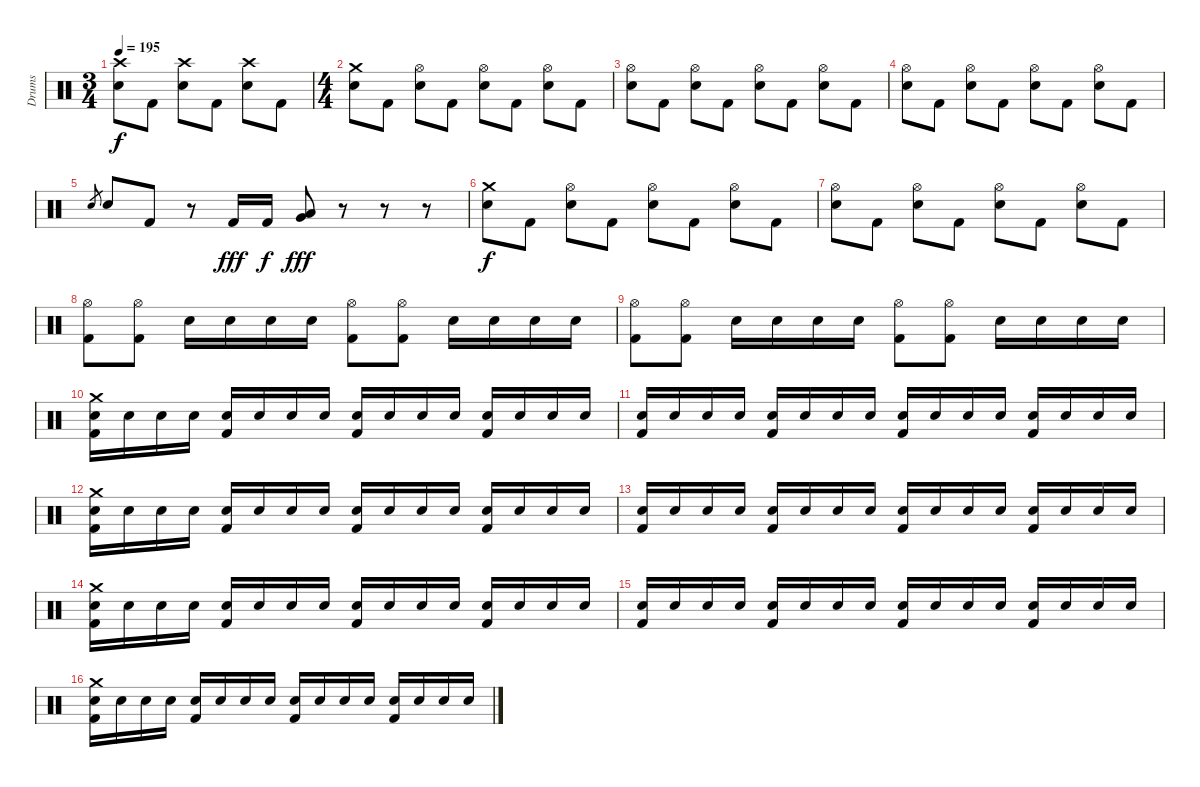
\track ("Drums" "Drums") {instrument percussion}
\staff {score}
\articulation defaults
\ts (3 4)
\tempo 195
\clef neutral
\ks c
("Crash high (hit)" "Electric Snare (hit)").8{dy f} "Kick (hit) 2".8 ("Crash high (hit)" "Electric Snare (hit)").8 "Kick (hit) 2".8 ("Crash high (hit)" "Electric Snare (hit)").8 "Kick (hit) 2".8 |
\ts (4 4)
("Crash medium (hit)" "Electric Snare (hit)").8 "Kick (hit) 2".8 ("Hi-Hat (open)" "Electric Snare (hit)").8 "Kick (hit) 2".8 ("Hi-Hat (open)" "Electric Snare (hit)").8 "Kick (hit) 2".8 ("Hi-Hat (open)" "Electric Snare (hit)").8 "Kick (hit) 2".8 |
("Hi-Hat (open)" "Electric Snare (hit)").8 "Kick (hit) 2".8 ("Hi-Hat (open)" "Electric Snare (hit)").8 "Kick (hit) 2".8 ("Hi-Hat (open)" "Electric Snare (hit)").8 "Kick (hit) 2".8 ("Hi-Hat (open)" "Electric Snare (hit)").8 "Kick (hit) 2".8 |
("Hi-Hat (open)" "Electric Snare (hit)").8 "Kick (hit) 2".8 ("Hi-Hat (open)" "Electric Snare (hit)").8 "Kick (hit) 2".8 ("Hi-Hat (open)" "Electric Snare (hit)").8 "Kick (hit) 2".8 ("Hi-Hat (open)" "Electric Snare (hit)").8 "Kick (hit) 2".8 |
"Electric Snare (hit)".8{gr} "Electric Snare (hit)".8 "Kick (hit) 2".8 r.8 "Kick (hit) 2".16{dy fff} "Kick (hit) 2".16{dy f} ("Low Floor Tom (hit)" "Very Low Tom (hit)").8{dy fff} r.8 r.8 r.8 |
("Crash medium (hit)" "Electric Snare (hit)").8{dy f} "Kick (hit) 2".8 ("Hi-Hat (open)" "Electric Snare (hit)").8 "Kick (hit) 2".8 ("Hi-Hat (open)" "Electric Snare (hit)").8 "Kick (hit) 2".8 ("Hi-Hat (open)" "Electric Snare (hit)").8 "Kick (hit) 2".8 |
("Hi-Hat (open)" "Electric Snare (hit)").8 "Kick (hit) 2".8 ("Hi-Hat (open)" "Electric Snare (hit)").8 "Kick (hit) 2".8 ("Hi-Hat (open)" "Electric Snare (hit)").8 "Kick (hit) 2".8 ("Hi-Hat (open)" "Electric Snare (hit)").8 "Kick (hit) 2".8 |
("Hi-Hat (open)" "Kick (hit) 2").8 ("Hi-Hat (open)" "Kick (hit) 2").8 "Electric Snare (hit)".16 "Electric Snare (hit)".16 "Electric Snare (hit)".16 "Electric Snare (hit)".16 ("Hi-Hat (open)" "Kick (hit) 2").8 ("Hi-Hat (open)" "Kick (hit) 2").8 "Electric Snare (hit)".16 "Electric Snare (hit)".16 "Electric Snare (hit)".16 "Electric Snare (hit)".16 |
("Hi-Hat (open)" "Kick (hit) 2").8 ("Hi-Hat (open)" "Kick (hit) 2").8 "Electric Snare (hit)".16 "Electric Snare (hit)".16 "Electric Snare (hit)".16 "Electric Snare (hit)".16 ("Hi-Hat (open)" "Kick (hit) 2").8 ("Hi-Hat (open)" "Kick (hit) 2").8 "Electric Snare (hit)".16 "Electric Snare (hit)".16 "Electric Snare (hit)".16 "Electric Snare (hit)".16 |
("Crash medium (hit)" "Electric Snare (hit)" "Kick (hit) 2").16 "Electric Snare (hit)".16 "Electric Snare (hit)".16 "Electric Snare (hit)".16 ("Electric Snare (hit)" "Kick (hit) 2").16 "Electric Snare (hit)".16 "Electric Snare (hit)".16 "Electric Snare (hit)".16 ("Electric Snare (hit)" "Kick (hit) 2").16 "Electric Snare (hit)".16 "Electric Snare (hit)".16 "Electric Snare (hit)".16 ("Electric Snare (hit)" "Kick (hit) 2").16 "Electric Snare (hit)".16 "Electric Snare (hit)".16 "Electric Snare (hit)".16 |
("Electric Snare (hit)" "Kick (hit) 2").16 "Electric Snare (hit)".16 "Electric Snare (hit)".16 "Electric Snare (hit)".16 ("Electric Snare (hit)" "Kick (hit) 2").16 "Electric Snare (hit)".16 "Electric Snare (hit)".16 "Electric Snare (hit)".16 ("Electric Snare (hit)" "Kick (hit) 2").16 "Electric Snare (hit)".16 "Electric Snare (hit)".16 "Electric Snare (hit)".16 ("Electric Snare (hit)" "Kick (hit) 2").16 "Electric Snare (hit)".16 "Electric Snare (hit)".16 "Electric Snare (hit)".16 |
("Crash medium (hit)" "Electric Snare (hit)" "Kick (hit) 2").16 "Electric Snare (hit)".16 "Electric Snare (hit)".16 "Electric Snare (hit)".16 ("Electric Snare (hit)" "Kick (hit) 2").16 "Electric Snare (hit)".16 "Electric Snare (hit)".16 "Electric Snare (hit)".16 ("Electric Snare (hit)" "Kick (hit) 2").16 "Electric Snare (hit)".16 "Electric Snare (hit)".16 "Electric Snare (hit)".16 ("Electric Snare (hit)" "Kick (hit) 2").16 "Electric Snare (hit)".16 "Electric Snare (hit)".16 "Electric Snare (hit)".16 |
("Electric Snare (hit)" "Kick (hit) 2").16 "Electric Snare (hit)".16 "Electric Snare (hit)".16 "Electric Snare (hit)".16 ("Electric Snare (hit)" "Kick (hit) 2").16 "Electric Snare (hit)".16 "Electric Snare (hit)".16 "Electric Snare (hit)".16 ("Electric Snare (hit)" "Kick (hit) 2").16 "Electric Snare (hit)".16 "Electric Snare (hit)".16 "Electric Snare (hit)".16 ("Electric Snare (hit)" "Kick (hit) 2").16 "Electric Snare (hit)".16 "Electric Snare (hit)".16 "Electric Snare (hit)".16 |
("Crash medium (hit)" "Electric Snare (hit)" "Kick (hit) 2").16 "Electric Snare (hit)".16 "Electric Snare (hit)".16 "Electric Snare (hit)".16 ("Electric Snare (hit)" "Kick (hit) 2").16 "Electric Snare (hit)".16 "Electric Snare (hit)".16 "Electric Snare (hit)".16 ("Electric Snare (hit)" "Kick (hit) 2").16 "Electric Snare (hit)".16 "Electric Snare (hit)".16 "Electric Snare (hit)".16 ("Electric Snare (hit)" "Kick (hit) 2").16 "Electric Snare (hit)".16 "Electric Snare (hit)".16 "Electric Snare (hit)".16 |
("Electric Snare (hit)" "Kick (hit) 2").16 "Electric Snare (hit)".16 "Electric Snare (hit)".16 "Electric Snare (hit)".16 ("Electric Snare (hit)" "Kick (hit) 2").16 "Electric Snare (hit)".16 "Electric Snare (hit)".16 "Electric Snare (hit)".16 ("Electric Snare (hit)" "Kick (hit) 2").16 "Electric Snare (hit)".16 "Electric Snare (hit)".16 "Electric Snare (hit)".16 ("Electric Snare (hit)" "Kick (hit) 2").16 "Electric Snare (hit)".16 "Electric Snare (hit)".16 "Electric Snare (hit)".16 |
("Crash medium (hit)" "Electric Snare (hit)" "Kick (hit) 2").16 "Electric Snare (hit)".16 "Electric Snare (hit)".16 "Electric Snare (hit)".16 ("Electric Snare (hit)" "Kick (hit) 2").16 "Electric Snare (hit)".16 "Electric Snare (hit)".16 "Electric Snare (hit)".16 ("Electric Snare (hit)" "Kick (hit) 2").16 "Electric Snare (hit)".16 "Electric Snare (hit)".16 "Electric Snare (hit)".16 ("Electric Snare (hit)" "Kick (hit) 2").16 "Electric Snare (hit)".16 "Electric Snare (hit)".16 "Electric Snare (hit)".16
